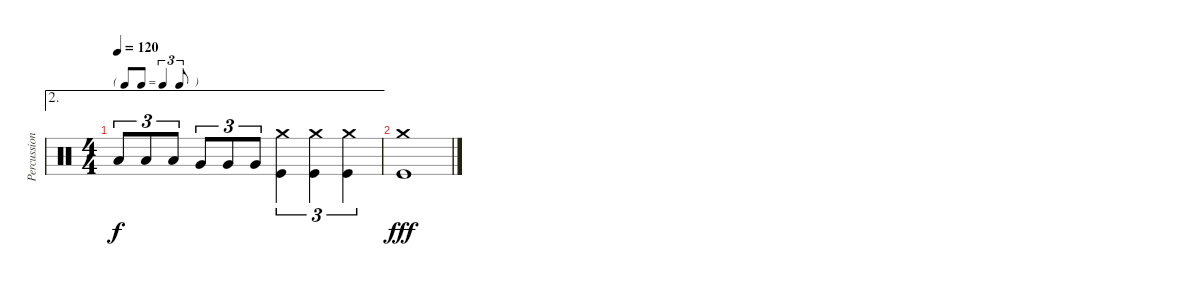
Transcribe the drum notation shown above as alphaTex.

\track ("Percussion" "Percussion") {instrument percussion}
\staff {score}
\articulation defaults
\ae 2
\ts (4 4)
\tf triplet8th
\tempo 120
\clef neutral
\ks c "Low Tom (hit)".8{tu (3 2) dy f} "Low Tom (hit)".8{tu (3 2)} "Low Tom (hit)".8{tu (3 2)} "Very Low Tom (hit)".8{tu (3 2)} "Very Low Tom (hit)".8{tu (3 2)} "Very Low Tom (hit)".8{tu (3 2)}
("Crash medium (hit)" "Kick (hit)").4{tu (3 2)} ("Crash medium (hit)" "Kick (hit)").4{tu (3 2)} ("Crash medium (hit)" "Kick (hit)").4{tu (3 2)} |
("Crash medium (hit)" "Kick (hit)").1{dy fff}
